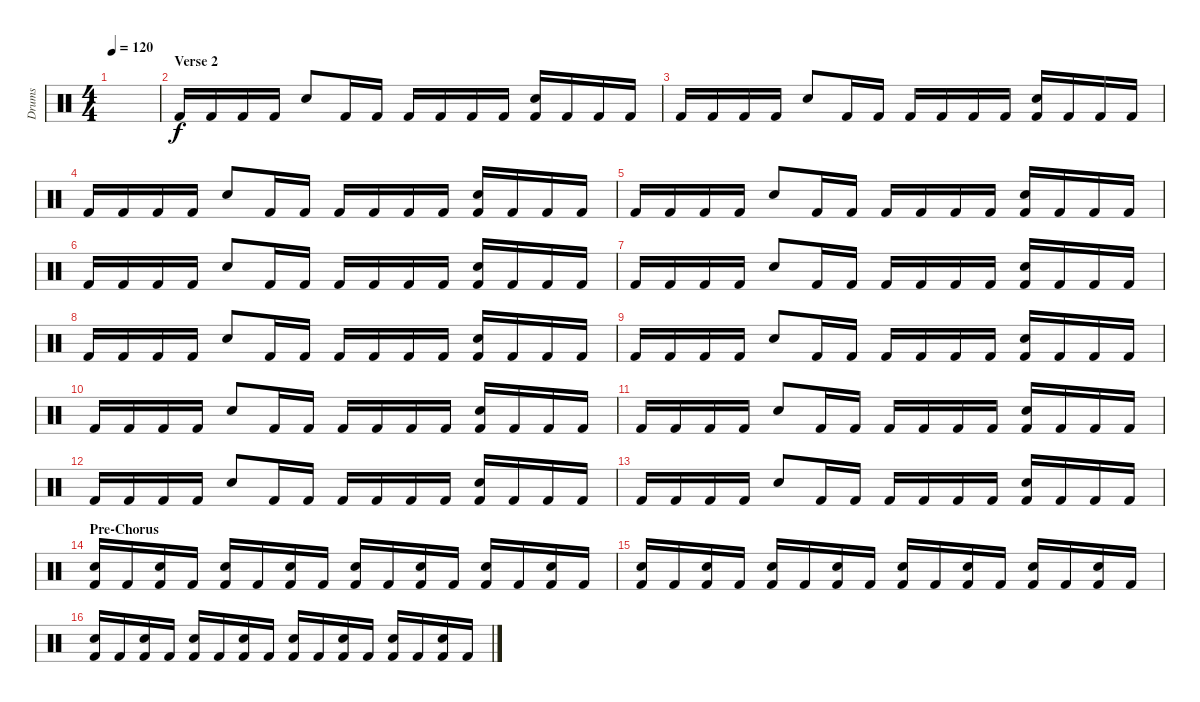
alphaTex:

\track ("Drums" "Drums") {instrument percussion}
\staff {score}
\articulation defaults
\ts (4 4)
\tempo 120
\clef neutral
\ks c
|
\section ("" "Verse 2")
"Kick (hit) 2".16 "Kick (hit) 2".16 "Kick (hit) 2".16 "Kick (hit) 2".16 "Electric Snare (hit)".8 "Kick (hit) 2".16 "Kick (hit) 2".16 "Kick (hit) 2".16 "Kick (hit) 2".16 "Kick (hit) 2".16 "Kick (hit) 2".16 ("Electric Snare (hit)" "Kick (hit) 2").16 "Kick (hit) 2".16 "Kick (hit) 2".16 "Kick (hit) 2".16 |
"Kick (hit) 2".16 "Kick (hit) 2".16 "Kick (hit) 2".16 "Kick (hit) 2".16 "Electric Snare (hit)".8 "Kick (hit) 2".16 "Kick (hit) 2".16 "Kick (hit) 2".16 "Kick (hit) 2".16 "Kick (hit) 2".16 "Kick (hit) 2".16 ("Electric Snare (hit)" "Kick (hit) 2").16 "Kick (hit) 2".16 "Kick (hit) 2".16 "Kick (hit) 2".16 |
"Kick (hit) 2".16 "Kick (hit) 2".16 "Kick (hit) 2".16 "Kick (hit) 2".16 "Electric Snare (hit)".8 "Kick (hit) 2".16 "Kick (hit) 2".16 "Kick (hit) 2".16 "Kick (hit) 2".16 "Kick (hit) 2".16 "Kick (hit) 2".16 ("Electric Snare (hit)" "Kick (hit) 2").16 "Kick (hit) 2".16 "Kick (hit) 2".16 "Kick (hit) 2".16 |
"Kick (hit) 2".16 "Kick (hit) 2".16 "Kick (hit) 2".16 "Kick (hit) 2".16 "Electric Snare (hit)".8 "Kick (hit) 2".16 "Kick (hit) 2".16 "Kick (hit) 2".16 "Kick (hit) 2".16 "Kick (hit) 2".16 "Kick (hit) 2".16 ("Electric Snare (hit)" "Kick (hit) 2").16 "Kick (hit) 2".16 "Kick (hit) 2".16 "Kick (hit) 2".16 |
"Kick (hit) 2".16 "Kick (hit) 2".16 "Kick (hit) 2".16 "Kick (hit) 2".16 "Electric Snare (hit)".8 "Kick (hit) 2".16 "Kick (hit) 2".16 "Kick (hit) 2".16 "Kick (hit) 2".16 "Kick (hit) 2".16 "Kick (hit) 2".16 ("Electric Snare (hit)" "Kick (hit) 2").16 "Kick (hit) 2".16 "Kick (hit) 2".16 "Kick (hit) 2".16 |
"Kick (hit) 2".16 "Kick (hit) 2".16 "Kick (hit) 2".16 "Kick (hit) 2".16 "Electric Snare (hit)".8 "Kick (hit) 2".16 "Kick (hit) 2".16 "Kick (hit) 2".16 "Kick (hit) 2".16 "Kick (hit) 2".16 "Kick (hit) 2".16 ("Electric Snare (hit)" "Kick (hit) 2").16 "Kick (hit) 2".16 "Kick (hit) 2".16 "Kick (hit) 2".16 |
"Kick (hit) 2".16 "Kick (hit) 2".16 "Kick (hit) 2".16 "Kick (hit) 2".16 "Electric Snare (hit)".8 "Kick (hit) 2".16 "Kick (hit) 2".16 "Kick (hit) 2".16 "Kick (hit) 2".16 "Kick (hit) 2".16 "Kick (hit) 2".16 ("Electric Snare (hit)" "Kick (hit) 2").16 "Kick (hit) 2".16 "Kick (hit) 2".16 "Kick (hit) 2".16 |
"Kick (hit) 2".16 "Kick (hit) 2".16 "Kick (hit) 2".16 "Kick (hit) 2".16 "Electric Snare (hit)".8 "Kick (hit) 2".16 "Kick (hit) 2".16 "Kick (hit) 2".16 "Kick (hit) 2".16 "Kick (hit) 2".16 "Kick (hit) 2".16 ("Electric Snare (hit)" "Kick (hit) 2").16 "Kick (hit) 2".16 "Kick (hit) 2".16 "Kick (hit) 2".16 |
"Kick (hit) 2".16 "Kick (hit) 2".16 "Kick (hit) 2".16 "Kick (hit) 2".16 "Electric Snare (hit)".8 "Kick (hit) 2".16 "Kick (hit) 2".16 "Kick (hit) 2".16 "Kick (hit) 2".16 "Kick (hit) 2".16 "Kick (hit) 2".16 ("Electric Snare (hit)" "Kick (hit) 2").16 "Kick (hit) 2".16 "Kick (hit) 2".16 "Kick (hit) 2".16 |
"Kick (hit) 2".16 "Kick (hit) 2".16 "Kick (hit) 2".16 "Kick (hit) 2".16 "Electric Snare (hit)".8 "Kick (hit) 2".16 "Kick (hit) 2".16 "Kick (hit) 2".16 "Kick (hit) 2".16 "Kick (hit) 2".16 "Kick (hit) 2".16 ("Electric Snare (hit)" "Kick (hit) 2").16 "Kick (hit) 2".16 "Kick (hit) 2".16 "Kick (hit) 2".16 |
"Kick (hit) 2".16 "Kick (hit) 2".16 "Kick (hit) 2".16 "Kick (hit) 2".16 "Electric Snare (hit)".8 "Kick (hit) 2".16 "Kick (hit) 2".16 "Kick (hit) 2".16 "Kick (hit) 2".16 "Kick (hit) 2".16 "Kick (hit) 2".16 ("Electric Snare (hit)" "Kick (hit) 2").16 "Kick (hit) 2".16 "Kick (hit) 2".16 "Kick (hit) 2".16 |
"Kick (hit) 2".16 "Kick (hit) 2".16 "Kick (hit) 2".16 "Kick (hit) 2".16 "Electric Snare (hit)".8 "Kick (hit) 2".16 "Kick (hit) 2".16 "Kick (hit) 2".16 "Kick (hit) 2".16 "Kick (hit) 2".16 "Kick (hit) 2".16 ("Electric Snare (hit)" "Kick (hit) 2").16 "Kick (hit) 2".16 "Kick (hit) 2".16 "Kick (hit) 2".16 |
\section ("" "Pre-Chorus")
("Electric Snare (hit)" "Kick (hit) 2").16 "Kick (hit) 2".16 ("Electric Snare (hit)" "Kick (hit) 2").16 "Kick (hit) 2".16 ("Electric Snare (hit)" "Kick (hit) 2").16 "Kick (hit) 2".16 ("Electric Snare (hit)" "Kick (hit) 2").16 "Kick (hit) 2".16 ("Electric Snare (hit)" "Kick (hit) 2").16 "Kick (hit) 2".16 ("Electric Snare (hit)" "Kick (hit) 2").16 "Kick (hit) 2".16 ("Electric Snare (hit)" "Kick (hit) 2").16 "Kick (hit) 2".16 ("Electric Snare (hit)" "Kick (hit) 2").16 "Kick (hit) 2".16 |
("Electric Snare (hit)" "Kick (hit) 2").16 "Kick (hit) 2".16 ("Electric Snare (hit)" "Kick (hit) 2").16 "Kick (hit) 2".16 ("Electric Snare (hit)" "Kick (hit) 2").16 "Kick (hit) 2".16 ("Electric Snare (hit)" "Kick (hit) 2").16 "Kick (hit) 2".16 ("Electric Snare (hit)" "Kick (hit) 2").16 "Kick (hit) 2".16 ("Electric Snare (hit)" "Kick (hit) 2").16 "Kick (hit) 2".16 ("Electric Snare (hit)" "Kick (hit) 2").16 "Kick (hit) 2".16 ("Electric Snare (hit)" "Kick (hit) 2").16 "Kick (hit) 2".16 |
("Electric Snare (hit)" "Kick (hit) 2").16 "Kick (hit) 2".16 ("Electric Snare (hit)" "Kick (hit) 2").16 "Kick (hit) 2".16 ("Electric Snare (hit)" "Kick (hit) 2").16 "Kick (hit) 2".16 ("Electric Snare (hit)" "Kick (hit) 2").16 "Kick (hit) 2".16 ("Electric Snare (hit)" "Kick (hit) 2").16 "Kick (hit) 2".16 ("Electric Snare (hit)" "Kick (hit) 2").16 "Kick (hit) 2".16 ("Electric Snare (hit)" "Kick (hit) 2").16 "Kick (hit) 2".16 ("Electric Snare (hit)" "Kick (hit) 2").16 "Kick (hit) 2".16
